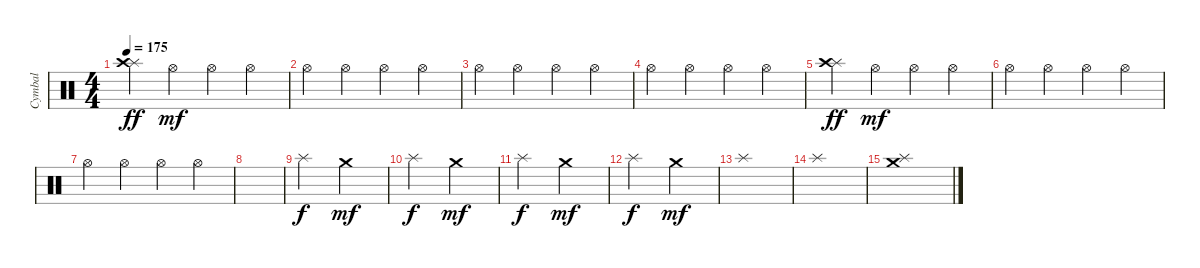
\track ("Cymbal" "Cymbal") {instrument percussion}
\staff {score}
\articulation defaults
\ts (4 4)
\tempo 175
\clef neutral
\ks c
("Splash (hit)" "Crash high (hit)").4{dy ff} "Hi-Hat (open)".4{dy mf} "Hi-Hat (open)".4 "Hi-Hat (open)".4 |
"Hi-Hat (open)".4 "Hi-Hat (open)".4 "Hi-Hat (open)".4 "Hi-Hat (open)".4 |
"Hi-Hat (open)".4 "Hi-Hat (open)".4 "Hi-Hat (open)".4 "Hi-Hat (open)".4 |
"Hi-Hat (open)".4 "Hi-Hat (open)".4 "Hi-Hat (open)".4 "Hi-Hat (open)".4 |
("Splash (hit)" "Crash high (hit)").4{dy ff} "Hi-Hat (open)".4{dy mf} "Hi-Hat (open)".4 "Hi-Hat (open)".4 |
"Hi-Hat (open)".4 "Hi-Hat (open)".4 "Hi-Hat (open)".4 "Hi-Hat (open)".4 |
"Hi-Hat (open)".4 "Hi-Hat (open)".4 "Hi-Hat (open)".4 "Hi-Hat (open)".4 |
|
"Splash (hit)".2{dy f} "Crash medium (hit)".2{dy mf} |
"Splash (hit)".2{dy f} "Crash medium (hit)".2{dy mf} |
"Splash (hit)".2{dy f} "Crash medium (hit)".2{dy mf} |
"Splash (hit)".2{dy f} "Crash medium (hit)".2{dy mf} |
"Splash (hit)".1 |
"Splash (hit)".1 |
("Crash medium (hit)" "Splash (hit)").1
